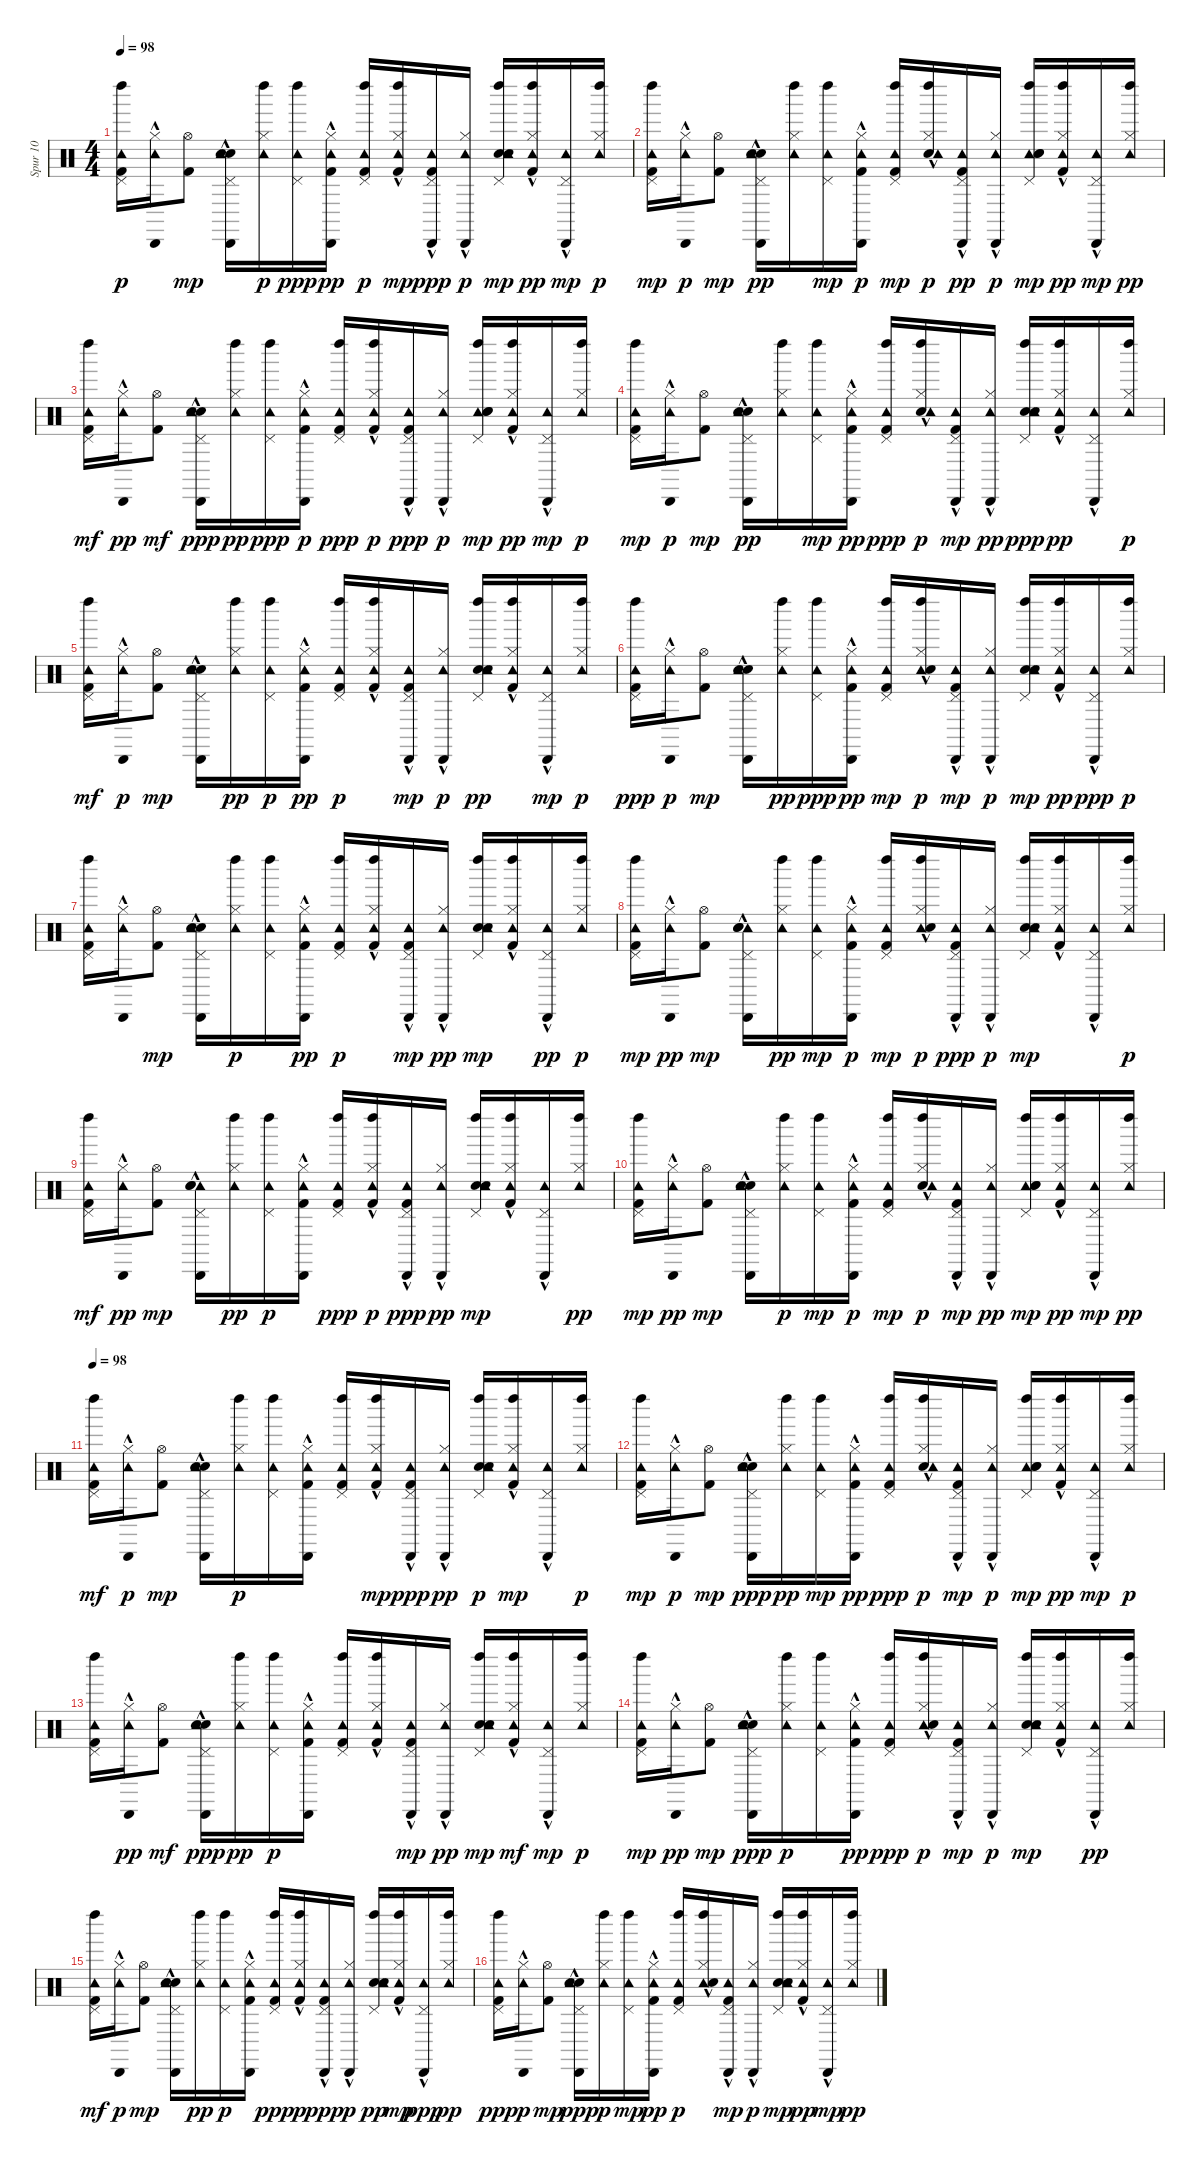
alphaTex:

\track ("Spur 10" "Spur 10") {instrument percussion}
\staff {score}
\articulation defaults
\ts (4 4)
\tempo 98
\clef neutral
\ks c
("Kick (hit) 2" "Tambourine (hit)" "Pedal Hi-Hat (hit)" "Left Maraca (hit)").16{dy p} ("Tambourine (hit)"{hac} "Cabasa (hit)"{hac} "Hi-Hat (closed)").16 ("Kick (hit) 2" "Hi-Hat (open)").8{dy mp} ("Snare (hit) 2" "Cabasa (hit)"{hac} "Hand Clap (hit)" "Tambourine (hit)" "Pedal Hi-Hat (hit)").16 ("Tambourine (hit)" "Left Maraca (hit)" "Hi-Hat (closed)").16{dy p} ("Left Maraca (hit)" "Pedal Hi-Hat (hit)" "Tambourine (hit)").16{dy ppp} ("Kick (hit) 2" "Cabasa (hit)"{hac} "Hi-Hat (closed)" "Tambourine (hit)").16{dy pp} ("Tambourine (hit)" "Left Maraca (hit)" "Kick (hit) 2" "Pedal Hi-Hat (hit)").16{dy p} ("Hi-Hat (closed)" "Tambourine (hit)" "Left Maraca (hit)"{hac} "Kick (hit) 2").16{dy mp} ("Pedal Hi-Hat (hit)" "Kick (hit) 2"{hac} "Cabasa (hit)" "Tambourine (hit)").16{dy ppp} ("Cabasa (hit)"{hac} "Tambourine (hit)" "Hi-Hat (closed)").16{dy p} ("Hand Clap (hit)" "Tambourine (hit)" "Left Maraca (hit)" "Snare (hit) 2" "Pedal Hi-Hat (hit)").16{dy mp} ("Hi-Hat (closed)" "Left Maraca (hit)" "Kick (hit) 2"{hac} "Tambourine (hit)").16{dy pp} ("Cabasa (hit)"{hac} "Tambourine (hit)" "Pedal Hi-Hat (hit)").16{dy mp} ("Tambourine (hit)" "Left Maraca (hit)" "Hi-Hat (closed)").16{dy p} |
("Pedal Hi-Hat (hit)" "Tambourine (hit)" "Left Maraca (hit)" "Kick (hit) 2").16{dy mp} ("Cabasa (hit)"{hac} "Tambourine (hit)"{hac} "Hi-Hat (closed)").16{dy p} ("Kick (hit) 2" "Hi-Hat (open)").8{dy mp} ("Hand Clap (hit)" "Snare (hit) 2" "Tambourine (hit)" "Pedal Hi-Hat (hit)" "Cabasa (hit)"{hac}).16{dy pp} ("Left Maraca (hit)" "Hi-Hat (closed)" "Tambourine (hit)").16 ("Left Maraca (hit)" "Tambourine (hit)" "Pedal Hi-Hat (hit)").16{dy mp} ("Cabasa (hit)"{hac} "Kick (hit) 2" "Tambourine (hit)" "Hi-Hat (closed)").16{dy p} ("Left Maraca (hit)" "Kick (hit) 2" "Tambourine (hit)" "Pedal Hi-Hat (hit)").16{dy mp} ("Left Maraca (hit)"{hac} "Snare (hit) 2"{hac} "Tambourine (hit)" "Hi-Hat (closed)").16{dy p} ("Kick (hit) 2"{hac} "Tambourine (hit)" "Pedal Hi-Hat (hit)" "Cabasa (hit)").16{dy pp} ("Tambourine (hit)" "Cabasa (hit)"{hac} "Hi-Hat (closed)").16{dy p} ("Tambourine (hit)" "Left Maraca (hit)" "Snare (hit) 2" "Hand Clap (hit)" "Pedal Hi-Hat (hit)").16{dy mp} ("Hi-Hat (closed)" "Left Maraca (hit)" "Kick (hit) 2"{hac} "Tambourine (hit)").16{dy pp} ("Tambourine (hit)" "Cabasa (hit)"{hac} "Pedal Hi-Hat (hit)").16{dy mp} ("Hi-Hat (closed)" "Left Maraca (hit)" "Tambourine (hit)").16{dy pp} |
("Left Maraca (hit)" "Kick (hit) 2" "Tambourine (hit)" "Pedal Hi-Hat (hit)").16{dy mf} ("Cabasa (hit)"{hac} "Hi-Hat (closed)" "Tambourine (hit)"{hac}).16{dy pp} ("Hi-Hat (open)" "Kick (hit) 2").8{dy mf} ("Cabasa (hit)"{hac} "Hand Clap (hit)" "Snare (hit) 2" "Pedal Hi-Hat (hit)" "Tambourine (hit)").16{dy ppp} ("Left Maraca (hit)" "Hi-Hat (closed)" "Tambourine (hit)").16{dy pp} ("Pedal Hi-Hat (hit)" "Left Maraca (hit)" "Tambourine (hit)").16{dy ppp} ("Cabasa (hit)"{hac} "Kick (hit) 2" "Tambourine (hit)" "Hi-Hat (closed)").16{dy p} ("Left Maraca (hit)" "Kick (hit) 2" "Pedal Hi-Hat (hit)" "Tambourine (hit)").16{dy ppp} ("Tambourine (hit)" "Left Maraca (hit)"{hac} "Kick (hit) 2" "Hi-Hat (closed)").16{dy p} ("Pedal Hi-Hat (hit)" "Cabasa (hit)" "Kick (hit) 2"{hac} "Tambourine (hit)").16{dy ppp} ("Tambourine (hit)" "Cabasa (hit)"{hac} "Hi-Hat (closed)").16{dy p} ("Tambourine (hit)" "Left Maraca (hit)" "Snare (hit) 2" "Pedal Hi-Hat (hit)" "Hand Clap (hit)").16{dy mp} ("Kick (hit) 2"{hac} "Left Maraca (hit)" "Hi-Hat (closed)" "Tambourine (hit)").16{dy pp} ("Cabasa (hit)"{hac} "Tambourine (hit)" "Pedal Hi-Hat (hit)").16{dy mp} ("Left Maraca (hit)" "Tambourine (hit)" "Hi-Hat (closed)").16{dy p} |
("Left Maraca (hit)" "Kick (hit) 2" "Tambourine (hit)" "Pedal Hi-Hat (hit)").16{dy mp} ("Cabasa (hit)"{hac} "Tambourine (hit)"{hac} "Hi-Hat (closed)").16{dy p} ("Kick (hit) 2" "Hi-Hat (open)").8{dy mp} ("Snare (hit) 2" "Hand Clap (hit)" "Tambourine (hit)" "Pedal Hi-Hat (hit)" "Cabasa (hit)"{hac}).16{dy pp} ("Left Maraca (hit)" "Hi-Hat (closed)" "Tambourine (hit)").16 ("Left Maraca (hit)" "Tambourine (hit)" "Pedal Hi-Hat (hit)").16{dy mp} ("Tambourine (hit)" "Hi-Hat (closed)" "Kick (hit) 2" "Cabasa (hit)"{hac}).16{dy pp} ("Left Maraca (hit)" "Pedal Hi-Hat (hit)" "Kick (hit) 2" "Tambourine (hit)").16{dy ppp} ("Snare (hit) 2"{hac} "Tambourine (hit)" "Left Maraca (hit)"{hac} "Hi-Hat (closed)").16{dy p} ("Pedal Hi-Hat (hit)" "Tambourine (hit)" "Cabasa (hit)" "Kick (hit) 2"{hac}).16{dy mp} ("Hi-Hat (closed)" "Cabasa (hit)"{hac} "Tambourine (hit)").16{dy pp} ("Left Maraca (hit)" "Snare (hit) 2" "Pedal Hi-Hat (hit)" "Hand Clap (hit)" "Tambourine (hit)").16{dy ppp} ("Left Maraca (hit)" "Kick (hit) 2"{hac} "Hi-Hat (closed)" "Tambourine (hit)").16{dy pp} ("Tambourine (hit)" "Pedal Hi-Hat (hit)" "Cabasa (hit)"{hac}).16 ("Left Maraca (hit)" "Tambourine (hit)" "Hi-Hat (closed)").16{dy p} |
("Kick (hit) 2" "Tambourine (hit)" "Left Maraca (hit)" "Pedal Hi-Hat (hit)").16{dy mf} ("Tambourine (hit)"{hac} "Cabasa (hit)"{hac} "Hi-Hat (closed)").16{dy p} ("Kick (hit) 2" "Hi-Hat (open)").8{dy mp} ("Snare (hit) 2" "Tambourine (hit)" "Hand Clap (hit)" "Cabasa (hit)"{hac} "Pedal Hi-Hat (hit)").16 ("Hi-Hat (closed)" "Left Maraca (hit)" "Tambourine (hit)").16{dy pp} ("Left Maraca (hit)" "Tambourine (hit)" "Pedal Hi-Hat (hit)").16{dy p} ("Kick (hit) 2" "Tambourine (hit)" "Hi-Hat (closed)" "Cabasa (hit)"{hac}).16{dy pp} ("Left Maraca (hit)" "Tambourine (hit)" "Kick (hit) 2" "Pedal Hi-Hat (hit)").16{dy p} ("Left Maraca (hit)"{hac} "Kick (hit) 2" "Tambourine (hit)" "Hi-Hat (closed)").16 ("Cabasa (hit)" "Kick (hit) 2"{hac} "Tambourine (hit)" "Pedal Hi-Hat (hit)").16{dy mp} ("Cabasa (hit)"{hac} "Tambourine (hit)" "Hi-Hat (closed)").16{dy p} ("Left Maraca (hit)" "Snare (hit) 2" "Hand Clap (hit)" "Pedal Hi-Hat (hit)" "Tambourine (hit)").16{dy pp} ("Kick (hit) 2"{hac} "Left Maraca (hit)" "Hi-Hat (closed)" "Tambourine (hit)").16 ("Tambourine (hit)" "Cabasa (hit)"{hac} "Pedal Hi-Hat (hit)").16{dy mp} ("Tambourine (hit)" "Left Maraca (hit)" "Hi-Hat (closed)").16{dy p} |
("Pedal Hi-Hat (hit)" "Left Maraca (hit)" "Kick (hit) 2" "Tambourine (hit)").16{dy ppp} ("Tambourine (hit)"{hac} "Cabasa (hit)"{hac} "Hi-Hat (closed)").16{dy p} ("Hi-Hat (open)" "Kick (hit) 2").8{dy mp} ("Cabasa (hit)"{hac} "Snare (hit) 2" "Hand Clap (hit)" "Tambourine (hit)" "Pedal Hi-Hat (hit)").16 ("Left Maraca (hit)" "Hi-Hat (closed)" "Tambourine (hit)").16{dy pp} ("Pedal Hi-Hat (hit)" "Left Maraca (hit)" "Tambourine (hit)").16{dy ppp} ("Kick (hit) 2" "Cabasa (hit)"{hac} "Hi-Hat (closed)" "Tambourine (hit)").16{dy pp} ("Left Maraca (hit)" "Tambourine (hit)" "Kick (hit) 2" "Pedal Hi-Hat (hit)").16{dy mp} ("Tambourine (hit)" "Left Maraca (hit)"{hac} "Snare (hit) 2"{hac} "Hi-Hat (closed)").16{dy p} ("Cabasa (hit)" "Kick (hit) 2"{hac} "Tambourine (hit)" "Pedal Hi-Hat (hit)").16{dy mp} ("Tambourine (hit)" "Cabasa (hit)"{hac} "Hi-Hat (closed)").16{dy p} ("Snare (hit) 2" "Left Maraca (hit)" "Tambourine (hit)" "Hand Clap (hit)" "Pedal Hi-Hat (hit)").16{dy mp} ("Kick (hit) 2"{hac} "Left Maraca (hit)" "Hi-Hat (closed)" "Tambourine (hit)").16{dy pp} ("Pedal Hi-Hat (hit)" "Cabasa (hit)"{hac} "Tambourine (hit)").16{dy ppp} ("Tambourine (hit)" "Hi-Hat (closed)" "Left Maraca (hit)").16{dy p} |
("Kick (hit) 2" "Left Maraca (hit)" "Pedal Hi-Hat (hit)" "Tambourine (hit)").16 ("Cabasa (hit)"{hac} "Tambourine (hit)"{hac} "Hi-Hat (closed)").16 ("Kick (hit) 2" "Hi-Hat (open)").8{dy mp} ("Cabasa (hit)"{hac} "Snare (hit) 2" "Hand Clap (hit)" "Tambourine (hit)" "Pedal Hi-Hat (hit)").16 ("Left Maraca (hit)" "Tambourine (hit)" "Hi-Hat (closed)").16{dy p} ("Left Maraca (hit)" "Tambourine (hit)" "Pedal Hi-Hat (hit)").16 ("Kick (hit) 2" "Tambourine (hit)" "Hi-Hat (closed)" "Cabasa (hit)"{hac}).16{dy pp} ("Left Maraca (hit)" "Kick (hit) 2" "Tambourine (hit)" "Pedal Hi-Hat (hit)").16{dy p} ("Kick (hit) 2" "Left Maraca (hit)"{hac} "Tambourine (hit)" "Hi-Hat (closed)").16 ("Kick (hit) 2"{hac} "Tambourine (hit)" "Cabasa (hit)" "Pedal Hi-Hat (hit)").16{dy mp} ("Cabasa (hit)"{hac} "Hi-Hat (closed)" "Tambourine (hit)").16{dy pp} ("Snare (hit) 2" "Left Maraca (hit)" "Tambourine (hit)" "Hand Clap (hit)" "Pedal Hi-Hat (hit)").16{dy mp} ("Kick (hit) 2"{hac} "Left Maraca (hit)" "Tambourine (hit)" "Hi-Hat (closed)").16 ("Tambourine (hit)" "Pedal Hi-Hat (hit)" "Cabasa (hit)"{hac}).16{dy pp} ("Left Maraca (hit)" "Tambourine (hit)" "Hi-Hat (closed)").16{dy p} |
("Kick (hit) 2" "Left Maraca (hit)" "Tambourine (hit)" "Pedal Hi-Hat (hit)").16{dy mp} ("Hi-Hat (closed)" "Tambourine (hit)"{hac} "Cabasa (hit)"{hac}).16{dy pp} ("Kick (hit) 2" "Hi-Hat (open)").8{dy mp} ("Tambourine (hit)" "Cabasa (hit)"{hac} "Snare (hit) 2" "Hand Clap (hit)" "Pedal Hi-Hat (hit)").16 ("Left Maraca (hit)" "Hi-Hat (closed)" "Tambourine (hit)").16{dy pp} ("Left Maraca (hit)" "Tambourine (hit)" "Pedal Hi-Hat (hit)").16{dy mp} ("Kick (hit) 2" "Tambourine (hit)" "Cabasa (hit)"{hac} "Hi-Hat (closed)").16{dy p} ("Left Maraca (hit)" "Pedal Hi-Hat (hit)" "Tambourine (hit)" "Kick (hit) 2").16{dy mp} ("Tambourine (hit)" "Snare (hit) 2"{hac} "Hi-Hat (closed)" "Left Maraca (hit)"{hac}).16{dy p} ("Kick (hit) 2"{hac} "Cabasa (hit)" "Pedal Hi-Hat (hit)" "Tambourine (hit)").16{dy ppp} ("Cabasa (hit)"{hac} "Tambourine (hit)" "Hi-Hat (closed)").16{dy p} ("Left Maraca (hit)" "Snare (hit) 2" "Hand Clap (hit)" "Tambourine (hit)" "Pedal Hi-Hat (hit)").16{dy mp} ("Left Maraca (hit)" "Kick (hit) 2"{hac} "Tambourine (hit)" "Hi-Hat (closed)").16 ("Cabasa (hit)"{hac} "Tambourine (hit)" "Pedal Hi-Hat (hit)").16 ("Tambourine (hit)" "Hi-Hat (closed)" "Left Maraca (hit)").16{dy p} |
("Left Maraca (hit)" "Tambourine (hit)" "Kick (hit) 2" "Pedal Hi-Hat (hit)").16{dy mf} ("Cabasa (hit)"{hac} "Hi-Hat (closed)" "Tambourine (hit)"{hac}).16{dy pp} ("Kick (hit) 2" "Hi-Hat (open)").8{dy mp} ("Tambourine (hit)" "Cabasa (hit)"{hac} "Snare (hit) 2" "Hand Clap (hit)" "Pedal Hi-Hat (hit)").16 ("Left Maraca (hit)" "Hi-Hat (closed)" "Tambourine (hit)").16{dy pp} ("Tambourine (hit)" "Left Maraca (hit)" "Pedal Hi-Hat (hit)").16{dy p} ("Cabasa (hit)"{hac} "Kick (hit) 2" "Tambourine (hit)" "Hi-Hat (closed)").16 ("Kick (hit) 2" "Left Maraca (hit)" "Pedal Hi-Hat (hit)" "Tambourine (hit)").16{dy ppp} ("Left Maraca (hit)"{hac} "Tambourine (hit)" "Kick (hit) 2" "Hi-Hat (closed)").16{dy p} ("Kick (hit) 2"{hac} "Cabasa (hit)" "Pedal Hi-Hat (hit)" "Tambourine (hit)").16{dy ppp} ("Hi-Hat (closed)" "Cabasa (hit)"{hac} "Tambourine (hit)").16{dy pp} ("Left Maraca (hit)" "Snare (hit) 2" "Hand Clap (hit)" "Tambourine (hit)" "Pedal Hi-Hat (hit)").16{dy mp} ("Left Maraca (hit)" "Tambourine (hit)" "Kick (hit) 2"{hac} "Hi-Hat (closed)").16 ("Tambourine (hit)" "Cabasa (hit)"{hac} "Pedal Hi-Hat (hit)").16 ("Left Maraca (hit)" "Hi-Hat (closed)" "Tambourine (hit)").16{dy pp} |
("Left Maraca (hit)" "Tambourine (hit)" "Kick (hit) 2" "Pedal Hi-Hat (hit)").16{dy mp} ("Hi-Hat (closed)" "Cabasa (hit)"{hac} "Tambourine (hit)"{hac}).16{dy pp} ("Hi-Hat (open)" "Kick (hit) 2").8{dy mp} ("Snare (hit) 2" "Cabasa (hit)"{hac} "Tambourine (hit)" "Hand Clap (hit)" "Pedal Hi-Hat (hit)").16 ("Left Maraca (hit)" "Tambourine (hit)" "Hi-Hat (closed)").16{dy p} ("Left Maraca (hit)" "Tambourine (hit)" "Pedal Hi-Hat (hit)").16{dy mp} ("Cabasa (hit)"{hac} "Kick (hit) 2" "Tambourine (hit)" "Hi-Hat (closed)").16{dy p} ("Left Maraca (hit)" "Kick (hit) 2" "Tambourine (hit)" "Pedal Hi-Hat (hit)").16{dy mp} ("Snare (hit) 2"{hac} "Tambourine (hit)" "Hi-Hat (closed)" "Left Maraca (hit)"{hac}).16{dy p} ("Kick (hit) 2"{hac} "Cabasa (hit)" "Tambourine (hit)" "Pedal Hi-Hat (hit)").16{dy mp} ("Tambourine (hit)" "Hi-Hat (closed)" "Cabasa (hit)"{hac}).16{dy pp} ("Tambourine (hit)" "Pedal Hi-Hat (hit)" "Left Maraca (hit)" "Snare (hit) 2" "Hand Clap (hit)").16{dy mp} ("Hi-Hat (closed)" "Kick (hit) 2"{hac} "Left Maraca (hit)" "Tambourine (hit)").16{dy pp} ("Tambourine (hit)" "Cabasa (hit)"{hac} "Pedal Hi-Hat (hit)").16{dy mp} ("Left Maraca (hit)" "Hi-Hat (closed)" "Tambourine (hit)").16{dy pp} |
\tempo 98
("Left Maraca (hit)" "Kick (hit) 2" "Tambourine (hit)" "Pedal Hi-Hat (hit)").16{dy mf} ("Tambourine (hit)"{hac} "Cabasa (hit)"{hac} "Hi-Hat (closed)").16{dy p} ("Kick (hit) 2" "Hi-Hat (open)").8{dy mp} ("Snare (hit) 2" "Cabasa (hit)"{hac} "Hand Clap (hit)" "Tambourine (hit)" "Pedal Hi-Hat (hit)").16 ("Hi-Hat (closed)" "Tambourine (hit)" "Left Maraca (hit)").16{dy p} ("Tambourine (hit)" "Left Maraca (hit)" "Pedal Hi-Hat (hit)").16 ("Kick (hit) 2" "Cabasa (hit)"{hac} "Tambourine (hit)" "Hi-Hat (closed)").16 ("Kick (hit) 2" "Tambourine (hit)" "Left Maraca (hit)" "Pedal Hi-Hat (hit)").16 ("Hi-Hat (closed)" "Tambourine (hit)" "Left Maraca (hit)"{hac} "Kick (hit) 2").16{dy mp} ("Pedal Hi-Hat (hit)" "Kick (hit) 2"{hac} "Cabasa (hit)" "Tambourine (hit)").16{dy ppp} ("Tambourine (hit)" "Hi-Hat (closed)" "Cabasa (hit)"{hac}).16{dy pp} ("Snare (hit) 2" "Hand Clap (hit)" "Tambourine (hit)" "Pedal Hi-Hat (hit)" "Left Maraca (hit)").16{dy p} ("Left Maraca (hit)" "Kick (hit) 2"{hac} "Tambourine (hit)" "Hi-Hat (closed)").16{dy mp} ("Cabasa (hit)"{hac} "Tambourine (hit)" "Pedal Hi-Hat (hit)").16 ("Left Maraca (hit)" "Tambourine (hit)" "Hi-Hat (closed)").16{dy p} |
("Left Maraca (hit)" "Kick (hit) 2" "Tambourine (hit)" "Pedal Hi-Hat (hit)").16{dy mp} ("Cabasa (hit)"{hac} "Tambourine (hit)"{hac} "Hi-Hat (closed)").16{dy p} ("Hi-Hat (open)" "Kick (hit) 2").8{dy mp} ("Cabasa (hit)"{hac} "Hand Clap (hit)" "Snare (hit) 2" "Pedal Hi-Hat (hit)" "Tambourine (hit)").16{dy ppp} ("Hi-Hat (closed)" "Left Maraca (hit)" "Tambourine (hit)").16{dy pp} ("Tambourine (hit)" "Left Maraca (hit)" "Pedal Hi-Hat (hit)").16{dy mp} ("Kick (hit) 2" "Cabasa (hit)"{hac} "Hi-Hat (closed)" "Tambourine (hit)").16{dy pp} ("Pedal Hi-Hat (hit)" "Left Maraca (hit)" "Kick (hit) 2" "Tambourine (hit)").16{dy ppp} ("Left Maraca (hit)"{hac} "Snare (hit) 2"{hac} "Tambourine (hit)" "Hi-Hat (closed)").16{dy p} ("Cabasa (hit)" "Tambourine (hit)" "Kick (hit) 2"{hac} "Pedal Hi-Hat (hit)").16{dy mp} ("Tambourine (hit)" "Cabasa (hit)"{hac} "Hi-Hat (closed)").16{dy p} ("Tambourine (hit)" "Left Maraca (hit)" "Snare (hit) 2" "Hand Clap (hit)" "Pedal Hi-Hat (hit)").16{dy mp} ("Hi-Hat (closed)" "Left Maraca (hit)" "Kick (hit) 2"{hac} "Tambourine (hit)").16{dy pp} ("Cabasa (hit)"{hac} "Tambourine (hit)" "Pedal Hi-Hat (hit)").16{dy mp} ("Left Maraca (hit)" "Tambourine (hit)" "Hi-Hat (closed)").16{dy p} |
("Kick (hit) 2" "Left Maraca (hit)" "Pedal Hi-Hat (hit)" "Tambourine (hit)").16 ("Cabasa (hit)"{hac} "Hi-Hat (closed)" "Tambourine (hit)"{hac}).16{dy pp} ("Hi-Hat (open)" "Kick (hit) 2").8{dy mf} ("Cabasa (hit)"{hac} "Hand Clap (hit)" "Snare (hit) 2" "Pedal Hi-Hat (hit)" "Tambourine (hit)").16{dy ppp} ("Hi-Hat (closed)" "Left Maraca (hit)" "Tambourine (hit)").16{dy pp} ("Tambourine (hit)" "Pedal Hi-Hat (hit)" "Left Maraca (hit)").16{dy p} ("Kick (hit) 2" "Cabasa (hit)"{hac} "Tambourine (hit)" "Hi-Hat (closed)").16 ("Left Maraca (hit)" "Kick (hit) 2" "Tambourine (hit)" "Pedal Hi-Hat (hit)").16 ("Left Maraca (hit)"{hac} "Kick (hit) 2" "Tambourine (hit)" "Hi-Hat (closed)").16 ("Cabasa (hit)" "Kick (hit) 2"{hac} "Tambourine (hit)" "Pedal Hi-Hat (hit)").16{dy mp} ("Cabasa (hit)"{hac} "Hi-Hat (closed)" "Tambourine (hit)").16{dy pp} ("Snare (hit) 2" "Left Maraca (hit)" "Tambourine (hit)" "Hand Clap (hit)" "Pedal Hi-Hat (hit)").16{dy mp} ("Hi-Hat (closed)" "Tambourine (hit)" "Left Maraca (hit)" "Kick (hit) 2"{hac}).16{dy mf} ("Cabasa (hit)"{hac} "Tambourine (hit)" "Pedal Hi-Hat (hit)").16{dy mp} ("Tambourine (hit)" "Left Maraca (hit)" "Hi-Hat (closed)").16{dy p} |
("Left Maraca (hit)" "Pedal Hi-Hat (hit)" "Tambourine (hit)" "Kick (hit) 2").16{dy mp} ("Cabasa (hit)"{hac} "Hi-Hat (closed)" "Tambourine (hit)"{hac}).16{dy pp} ("Hi-Hat (open)" "Kick (hit) 2").8{dy mp} ("Cabasa (hit)"{hac} "Pedal Hi-Hat (hit)" "Hand Clap (hit)" "Snare (hit) 2" "Tambourine (hit)").16{dy ppp} ("Left Maraca (hit)" "Tambourine (hit)" "Hi-Hat (closed)").16{dy p} ("Tambourine (hit)" "Pedal Hi-Hat (hit)" "Left Maraca (hit)").16 ("Hi-Hat (closed)" "Kick (hit) 2" "Cabasa (hit)"{hac} "Tambourine (hit)").16{dy pp} ("Kick (hit) 2" "Left Maraca (hit)" "Pedal Hi-Hat (hit)" "Tambourine (hit)").16{dy ppp} ("Tambourine (hit)" "Left Maraca (hit)"{hac} "Snare (hit) 2"{hac} "Hi-Hat (closed)").16{dy p} ("Pedal Hi-Hat (hit)" "Tambourine (hit)" "Cabasa (hit)" "Kick (hit) 2"{hac}).16{dy mp} ("Cabasa (hit)"{hac} "Tambourine (hit)" "Hi-Hat (closed)").16{dy p} ("Snare (hit) 2" "Left Maraca (hit)" "Hand Clap (hit)" "Tambourine (hit)" "Pedal Hi-Hat (hit)").16{dy mp} ("Tambourine (hit)" "Hi-Hat (closed)" "Left Maraca (hit)" "Kick (hit) 2"{hac}).16 ("Tambourine (hit)" "Pedal Hi-Hat (hit)" "Cabasa (hit)"{hac}).16{dy pp} ("Left Maraca (hit)" "Hi-Hat (closed)" "Tambourine (hit)").16 |
("Left Maraca (hit)" "Kick (hit) 2" "Tambourine (hit)" "Pedal Hi-Hat (hit)").16{dy mf} ("Cabasa (hit)"{hac} "Tambourine (hit)"{hac} "Hi-Hat (closed)").16{dy p} ("Kick (hit) 2" "Hi-Hat (open)").8{dy mp} ("Cabasa (hit)"{hac} "Snare (hit) 2" "Hand Clap (hit)" "Tambourine (hit)" "Pedal Hi-Hat (hit)").16 ("Left Maraca (hit)" "Hi-Hat (closed)" "Tambourine (hit)").16{dy pp} ("Tambourine (hit)" "Left Maraca (hit)" "Pedal Hi-Hat (hit)").16{dy p} ("Cabasa (hit)"{hac} "Tambourine (hit)" "Kick (hit) 2" "Hi-Hat (closed)").16 ("Kick (hit) 2" "Left Maraca (hit)" "Pedal Hi-Hat (hit)" "Tambourine (hit)").16{dy ppp} ("Tambourine (hit)" "Left Maraca (hit)"{hac} "Kick (hit) 2" "Hi-Hat (closed)").16{dy p} ("Pedal Hi-Hat (hit)" "Cabasa (hit)" "Kick (hit) 2"{hac} "Tambourine (hit)").16{dy ppp} ("Cabasa (hit)"{hac} "Tambourine (hit)" "Hi-Hat (closed)").16{dy p} ("Left Maraca (hit)" "Snare (hit) 2" "Hand Clap (hit)" "Pedal Hi-Hat (hit)" "Tambourine (hit)").16{dy pp} ("Tambourine (hit)" "Left Maraca (hit)" "Kick (hit) 2"{hac} "Hi-Hat (closed)").16{dy mp} ("Cabasa (hit)"{hac} "Pedal Hi-Hat (hit)" "Tambourine (hit)").16{dy ppp} ("Left Maraca (hit)" "Hi-Hat (closed)" "Tambourine (hit)").16{dy pp} |
("Pedal Hi-Hat (hit)" "Left Maraca (hit)" "Kick (hit) 2" "Tambourine (hit)").16{dy ppp} ("Cabasa (hit)"{hac} "Tambourine (hit)"{hac} "Hi-Hat (closed)").16{dy p} ("Kick (hit) 2" "Hi-Hat (open)").8{dy mp} ("Pedal Hi-Hat (hit)" "Cabasa (hit)"{hac} "Snare (hit) 2" "Hand Clap (hit)" "Tambourine (hit)").16{dy ppp} ("Tambourine (hit)" "Left Maraca (hit)" "Hi-Hat (closed)").16{dy p} ("Tambourine (hit)" "Left Maraca (hit)" "Pedal Hi-Hat (hit)").16{dy mp} ("Hi-Hat (closed)" "Cabasa (hit)"{hac} "Kick (hit) 2" "Tambourine (hit)").16{dy pp} ("Kick (hit) 2" "Tambourine (hit)" "Pedal Hi-Hat (hit)" "Left Maraca (hit)").16{dy p} ("Left Maraca (hit)"{hac} "Tambourine (hit)" "Snare (hit) 2"{hac} "Hi-Hat (closed)").16 ("Cabasa (hit)" "Kick (hit) 2"{hac} "Tambourine (hit)" "Pedal Hi-Hat (hit)").16{dy mp} ("Cabasa (hit)"{hac} "Tambourine (hit)" "Hi-Hat (closed)").16{dy p} ("Left Maraca (hit)" "Snare (hit) 2" "Hand Clap (hit)" "Tambourine (hit)" "Pedal Hi-Hat (hit)").16{dy mp} ("Left Maraca (hit)" "Kick (hit) 2"{hac} "Hi-Hat (closed)" "Tambourine (hit)").16{dy pp} ("Tambourine (hit)" "Cabasa (hit)"{hac} "Pedal Hi-Hat (hit)").16{dy mp} ("Left Maraca (hit)" "Hi-Hat (closed)" "Tambourine (hit)").16{dy pp}
